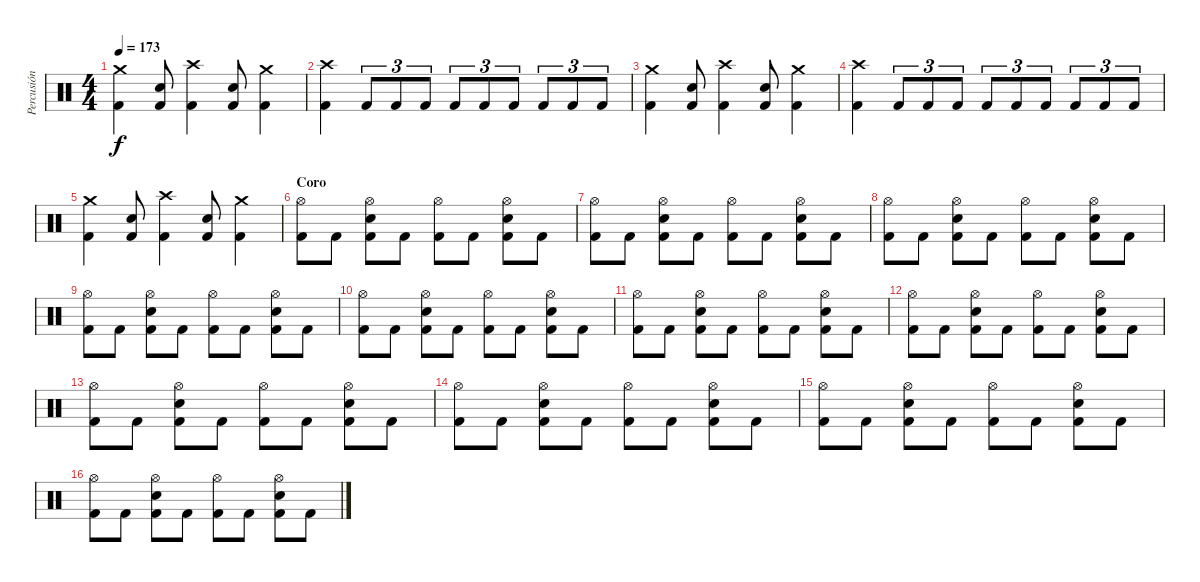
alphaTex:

\track ("Percusión" "Percusión") {instrument percussion}
\staff {score}
\articulation defaults
\ts (4 4)
\tempo 173
\clef neutral
\ks c
("Crash medium (hit)" "Kick (hit) 2").4{dy f} ("Snare (hit) 2" "Kick (hit) 2").8 ("Crash high (hit)" "Kick (hit) 2").4 ("Snare (hit) 2" "Kick (hit) 2").8 ("Crash medium (hit)" "Kick (hit) 2").4 |
("Crash high (hit)" "Kick (hit) 2").4 "Kick (hit) 2".8{tu (3 2)} "Kick (hit) 2".8{tu (3 2)} "Kick (hit) 2".8{tu (3 2)} "Kick (hit) 2".8{tu (3 2)} "Kick (hit) 2".8{tu (3 2)} "Kick (hit) 2".8{tu (3 2)} "Kick (hit) 2".8{tu (3 2)} "Kick (hit) 2".8{tu (3 2)} "Kick (hit) 2".8{tu (3 2)} |
("Crash medium (hit)" "Kick (hit) 2").4 ("Snare (hit) 2" "Kick (hit) 2").8 ("Crash high (hit)" "Kick (hit) 2").4 ("Snare (hit) 2" "Kick (hit) 2").8 ("Crash medium (hit)" "Kick (hit) 2").4 |
("Crash high (hit)" "Kick (hit) 2").4 "Kick (hit) 2".8{tu (3 2)} "Kick (hit) 2".8{tu (3 2)} "Kick (hit) 2".8{tu (3 2)} "Kick (hit) 2".8{tu (3 2)} "Kick (hit) 2".8{tu (3 2)} "Kick (hit) 2".8{tu (3 2)} "Kick (hit) 2".8{tu (3 2)} "Kick (hit) 2".8{tu (3 2)} "Kick (hit) 2".8{tu (3 2)} |
("Crash medium (hit)" "Kick (hit) 2").4 ("Snare (hit) 2" "Kick (hit) 2").8 ("Crash high (hit)" "Kick (hit) 2").4 ("Snare (hit) 2" "Kick (hit) 2").8 ("Crash medium (hit)" "Kick (hit) 2").4 |
\section ("" "Coro")
("Hi-Hat (open)" "Kick (hit) 2").8 "Kick (hit) 2".8 ("Hi-Hat (open)" "Snare (hit) 2" "Kick (hit) 2").8 "Kick (hit) 2".8 ("Hi-Hat (open)" "Kick (hit) 2").8 "Kick (hit) 2".8 ("Hi-Hat (open)" "Snare (hit) 2" "Kick (hit) 2").8 "Kick (hit) 2".8 |
("Hi-Hat (open)" "Kick (hit) 2").8 "Kick (hit) 2".8 ("Hi-Hat (open)" "Snare (hit) 2" "Kick (hit) 2").8 "Kick (hit) 2".8 ("Hi-Hat (open)" "Kick (hit) 2").8 "Kick (hit) 2".8 ("Hi-Hat (open)" "Snare (hit) 2" "Kick (hit) 2").8 "Kick (hit) 2".8 |
("Hi-Hat (open)" "Kick (hit) 2").8 "Kick (hit) 2".8 ("Hi-Hat (open)" "Snare (hit) 2" "Kick (hit) 2").8 "Kick (hit) 2".8 ("Hi-Hat (open)" "Kick (hit) 2").8 "Kick (hit) 2".8 ("Hi-Hat (open)" "Snare (hit) 2" "Kick (hit) 2").8 "Kick (hit) 2".8 |
("Hi-Hat (open)" "Kick (hit) 2").8 "Kick (hit) 2".8 ("Hi-Hat (open)" "Snare (hit) 2" "Kick (hit) 2").8 "Kick (hit) 2".8 ("Hi-Hat (open)" "Kick (hit) 2").8 "Kick (hit) 2".8 ("Hi-Hat (open)" "Snare (hit) 2" "Kick (hit) 2").8 "Kick (hit) 2".8 |
("Hi-Hat (open)" "Kick (hit) 2").8 "Kick (hit) 2".8 ("Hi-Hat (open)" "Snare (hit) 2" "Kick (hit) 2").8 "Kick (hit) 2".8 ("Hi-Hat (open)" "Kick (hit) 2").8 "Kick (hit) 2".8 ("Hi-Hat (open)" "Snare (hit) 2" "Kick (hit) 2").8 "Kick (hit) 2".8 |
("Hi-Hat (open)" "Kick (hit) 2").8 "Kick (hit) 2".8 ("Hi-Hat (open)" "Snare (hit) 2" "Kick (hit) 2").8 "Kick (hit) 2".8 ("Hi-Hat (open)" "Kick (hit) 2").8 "Kick (hit) 2".8 ("Hi-Hat (open)" "Snare (hit) 2" "Kick (hit) 2").8 "Kick (hit) 2".8 |
("Hi-Hat (open)" "Kick (hit) 2").8 "Kick (hit) 2".8 ("Hi-Hat (open)" "Snare (hit) 2" "Kick (hit) 2").8 "Kick (hit) 2".8 ("Hi-Hat (open)" "Kick (hit) 2").8 "Kick (hit) 2".8 ("Hi-Hat (open)" "Snare (hit) 2" "Kick (hit) 2").8 "Kick (hit) 2".8 |
("Hi-Hat (open)" "Kick (hit) 2").8 "Kick (hit) 2".8 ("Hi-Hat (open)" "Snare (hit) 2" "Kick (hit) 2").8 "Kick (hit) 2".8 ("Hi-Hat (open)" "Kick (hit) 2").8 "Kick (hit) 2".8 ("Hi-Hat (open)" "Snare (hit) 2" "Kick (hit) 2").8 "Kick (hit) 2".8 |
("Hi-Hat (open)" "Kick (hit) 2").8 "Kick (hit) 2".8 ("Hi-Hat (open)" "Snare (hit) 2" "Kick (hit) 2").8 "Kick (hit) 2".8 ("Hi-Hat (open)" "Kick (hit) 2").8 "Kick (hit) 2".8 ("Hi-Hat (open)" "Snare (hit) 2" "Kick (hit) 2").8 "Kick (hit) 2".8 |
("Hi-Hat (open)" "Kick (hit) 2").8 "Kick (hit) 2".8 ("Hi-Hat (open)" "Snare (hit) 2" "Kick (hit) 2").8 "Kick (hit) 2".8 ("Hi-Hat (open)" "Kick (hit) 2").8 "Kick (hit) 2".8 ("Hi-Hat (open)" "Snare (hit) 2" "Kick (hit) 2").8 "Kick (hit) 2".8 |
("Hi-Hat (open)" "Kick (hit) 2").8 "Kick (hit) 2".8 ("Hi-Hat (open)" "Snare (hit) 2" "Kick (hit) 2").8 "Kick (hit) 2".8 ("Hi-Hat (open)" "Kick (hit) 2").8 "Kick (hit) 2".8 ("Hi-Hat (open)" "Snare (hit) 2" "Kick (hit) 2").8 "Kick (hit) 2".8
